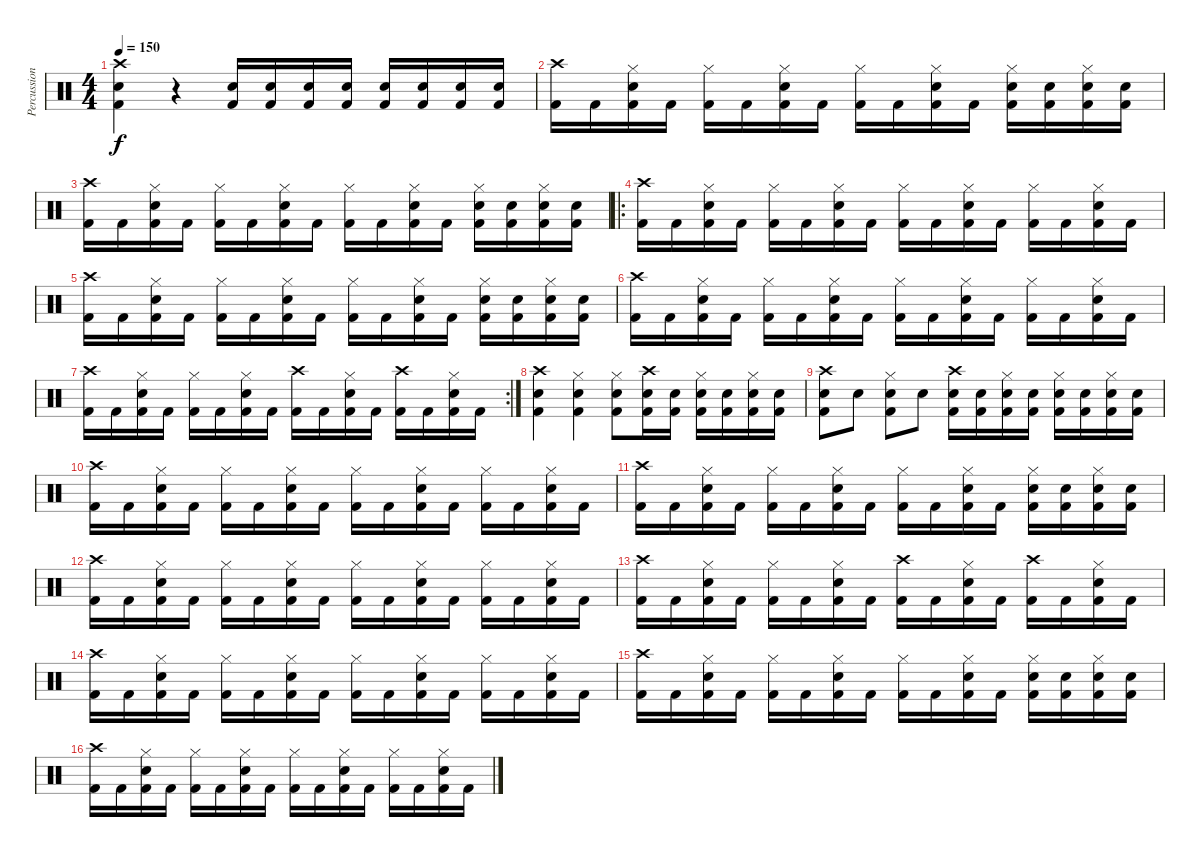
\track ("Percussion" "Percussion") {instrument percussion}
\staff {score}
\articulation defaults
\ts (4 4)
\tempo 150
\clef neutral
\ks c
("Crash high (hit)" "Snare (hit) 2" "Kick (hit) 2").4{dy f} r.4 ("Snare (hit) 2" "Kick (hit) 2").16 ("Snare (hit) 2" "Kick (hit) 2").16 ("Snare (hit) 2" "Kick (hit) 2").16 ("Snare (hit) 2" "Kick (hit) 2").16 ("Snare (hit) 2" "Kick (hit) 2").16 ("Snare (hit) 2" "Kick (hit) 2").16 ("Snare (hit) 2" "Kick (hit) 2").16 ("Snare (hit) 2" "Kick (hit) 2").16 |
("Crash high (hit)" "Kick (hit) 2").16 "Kick (hit) 2".16 ("Hi-Hat (closed)" "Snare (hit) 2" "Kick (hit) 2").16 "Kick (hit) 2".16 ("Hi-Hat (closed)" "Kick (hit) 2").16 "Kick (hit) 2".16 ("Hi-Hat (closed)" "Snare (hit) 2" "Kick (hit) 2").16 "Kick (hit) 2".16 ("Hi-Hat (closed)" "Kick (hit) 2").16 "Kick (hit) 2".16 ("Hi-Hat (closed)" "Snare (hit) 2" "Kick (hit) 2").16 "Kick (hit) 2".16 ("Hi-Hat (closed)" "Snare (hit) 2" "Kick (hit) 2").16 ("Snare (hit) 2" "Kick (hit) 2").16 ("Hi-Hat (closed)" "Snare (hit) 2" "Kick (hit) 2").16 ("Snare (hit) 2" "Kick (hit) 2").16 |
("Crash high (hit)" "Kick (hit) 2").16 "Kick (hit) 2".16 ("Hi-Hat (closed)" "Snare (hit) 2" "Kick (hit) 2").16 "Kick (hit) 2".16 ("Hi-Hat (closed)" "Kick (hit) 2").16 "Kick (hit) 2".16 ("Hi-Hat (closed)" "Snare (hit) 2" "Kick (hit) 2").16 "Kick (hit) 2".16 ("Hi-Hat (closed)" "Kick (hit) 2").16 "Kick (hit) 2".16 ("Hi-Hat (closed)" "Snare (hit) 2" "Kick (hit) 2").16 "Kick (hit) 2".16 ("Hi-Hat (closed)" "Snare (hit) 2" "Kick (hit) 2").16 ("Snare (hit) 2" "Kick (hit) 2").16 ("Hi-Hat (closed)" "Snare (hit) 2" "Kick (hit) 2").16 ("Snare (hit) 2" "Kick (hit) 2").16 |
\ro
("Crash high (hit)" "Kick (hit) 2").16 "Kick (hit) 2".16 ("Hi-Hat (closed)" "Snare (hit) 2" "Kick (hit) 2").16 "Kick (hit) 2".16 ("Hi-Hat (closed)" "Kick (hit) 2").16 "Kick (hit) 2".16 ("Hi-Hat (closed)" "Snare (hit) 2" "Kick (hit) 2").16 "Kick (hit) 2".16 ("Hi-Hat (closed)" "Kick (hit) 2").16 "Kick (hit) 2".16 ("Hi-Hat (closed)" "Snare (hit) 2" "Kick (hit) 2").16 "Kick (hit) 2".16 ("Hi-Hat (closed)" "Kick (hit) 2").16 "Kick (hit) 2".16 ("Hi-Hat (closed)" "Snare (hit) 2" "Kick (hit) 2").16 "Kick (hit) 2".16 |
("Crash high (hit)" "Kick (hit) 2").16 "Kick (hit) 2".16 ("Hi-Hat (closed)" "Snare (hit) 2" "Kick (hit) 2").16 "Kick (hit) 2".16 ("Hi-Hat (closed)" "Kick (hit) 2").16 "Kick (hit) 2".16 ("Hi-Hat (closed)" "Snare (hit) 2" "Kick (hit) 2").16 "Kick (hit) 2".16 ("Hi-Hat (closed)" "Kick (hit) 2").16 "Kick (hit) 2".16 ("Hi-Hat (closed)" "Snare (hit) 2" "Kick (hit) 2").16 "Kick (hit) 2".16 ("Hi-Hat (closed)" "Snare (hit) 2" "Kick (hit) 2").16 ("Snare (hit) 2" "Kick (hit) 2").16 ("Hi-Hat (closed)" "Snare (hit) 2" "Kick (hit) 2").16 ("Snare (hit) 2" "Kick (hit) 2").16 |
("Crash high (hit)" "Kick (hit) 2").16 "Kick (hit) 2".16 ("Hi-Hat (closed)" "Snare (hit) 2" "Kick (hit) 2").16 "Kick (hit) 2".16 ("Hi-Hat (closed)" "Kick (hit) 2").16 "Kick (hit) 2".16 ("Hi-Hat (closed)" "Snare (hit) 2" "Kick (hit) 2").16 "Kick (hit) 2".16 ("Hi-Hat (closed)" "Kick (hit) 2").16 "Kick (hit) 2".16 ("Hi-Hat (closed)" "Snare (hit) 2" "Kick (hit) 2").16 "Kick (hit) 2".16 ("Hi-Hat (closed)" "Kick (hit) 2").16 "Kick (hit) 2".16 ("Hi-Hat (closed)" "Snare (hit) 2" "Kick (hit) 2").16 "Kick (hit) 2".16 |
\rc 2
("Crash high (hit)" "Kick (hit) 2").16 "Kick (hit) 2".16 ("Hi-Hat (closed)" "Snare (hit) 2" "Kick (hit) 2").16 "Kick (hit) 2".16 ("Hi-Hat (closed)" "Kick (hit) 2").16 "Kick (hit) 2".16 ("Hi-Hat (closed)" "Snare (hit) 2" "Kick (hit) 2").16 "Kick (hit) 2".16 ("Crash high (hit)" "Kick (hit) 2").16 "Kick (hit) 2".16 ("Hi-Hat (closed)" "Snare (hit) 2" "Kick (hit) 2").16 "Kick (hit) 2".16 ("Crash high (hit)" "Kick (hit) 2").16 "Kick (hit) 2".16 ("Hi-Hat (closed)" "Snare (hit) 2" "Kick (hit) 2").16 "Kick (hit) 2".16 |
("Crash high (hit)" "Snare (hit) 2" "Kick (hit) 2").4 ("Hi-Hat (closed)" "Snare (hit) 2" "Kick (hit) 2").4 ("Hi-Hat (closed)" "Snare (hit) 2" "Kick (hit) 2").8 ("Crash high (hit)" "Snare (hit) 2" "Kick (hit) 2").16 ("Snare (hit) 2" "Kick (hit) 2").16 ("Hi-Hat (closed)" "Snare (hit) 2" "Kick (hit) 2").16 ("Snare (hit) 2" "Kick (hit) 2").16 ("Hi-Hat (closed)" "Snare (hit) 2" "Kick (hit) 2").16 ("Snare (hit) 2" "Kick (hit) 2").16 |
("Crash high (hit)" "Snare (hit) 2" "Kick (hit) 2").8 "Snare (hit) 2".8 ("Hi-Hat (closed)" "Snare (hit) 2" "Kick (hit) 2").8 "Snare (hit) 2".8 ("Crash high (hit)" "Snare (hit) 2" "Kick (hit) 2").16 ("Snare (hit) 2" "Kick (hit) 2").16 ("Hi-Hat (closed)" "Snare (hit) 2" "Kick (hit) 2").16 ("Snare (hit) 2" "Kick (hit) 2").16 ("Hi-Hat (closed)" "Snare (hit) 2" "Kick (hit) 2").16 ("Snare (hit) 2" "Kick (hit) 2").16 ("Hi-Hat (closed)" "Snare (hit) 2" "Kick (hit) 2").16 ("Snare (hit) 2" "Kick (hit) 2").16 |
("Crash high (hit)" "Kick (hit) 2").16 "Kick (hit) 2".16 ("Hi-Hat (closed)" "Snare (hit) 2" "Kick (hit) 2").16 "Kick (hit) 2".16 ("Hi-Hat (closed)" "Kick (hit) 2").16 "Kick (hit) 2".16 ("Hi-Hat (closed)" "Snare (hit) 2" "Kick (hit) 2").16 "Kick (hit) 2".16 ("Hi-Hat (closed)" "Kick (hit) 2").16 "Kick (hit) 2".16 ("Hi-Hat (closed)" "Snare (hit) 2" "Kick (hit) 2").16 "Kick (hit) 2".16 ("Hi-Hat (closed)" "Kick (hit) 2").16 "Kick (hit) 2".16 ("Hi-Hat (closed)" "Snare (hit) 2" "Kick (hit) 2").16 "Kick (hit) 2".16 |
("Crash high (hit)" "Kick (hit) 2").16 "Kick (hit) 2".16 ("Hi-Hat (closed)" "Snare (hit) 2" "Kick (hit) 2").16 "Kick (hit) 2".16 ("Hi-Hat (closed)" "Kick (hit) 2").16 "Kick (hit) 2".16 ("Hi-Hat (closed)" "Snare (hit) 2" "Kick (hit) 2").16 "Kick (hit) 2".16 ("Hi-Hat (closed)" "Kick (hit) 2").16 "Kick (hit) 2".16 ("Hi-Hat (closed)" "Snare (hit) 2" "Kick (hit) 2").16 "Kick (hit) 2".16 ("Hi-Hat (closed)" "Snare (hit) 2" "Kick (hit) 2").16 ("Snare (hit) 2" "Kick (hit) 2").16 ("Hi-Hat (closed)" "Snare (hit) 2" "Kick (hit) 2").16 ("Snare (hit) 2" "Kick (hit) 2").16 |
("Crash high (hit)" "Kick (hit) 2").16 "Kick (hit) 2".16 ("Hi-Hat (closed)" "Snare (hit) 2" "Kick (hit) 2").16 "Kick (hit) 2".16 ("Hi-Hat (closed)" "Kick (hit) 2").16 "Kick (hit) 2".16 ("Hi-Hat (closed)" "Snare (hit) 2" "Kick (hit) 2").16 "Kick (hit) 2".16 ("Hi-Hat (closed)" "Kick (hit) 2").16 "Kick (hit) 2".16 ("Hi-Hat (closed)" "Snare (hit) 2" "Kick (hit) 2").16 "Kick (hit) 2".16 ("Hi-Hat (closed)" "Kick (hit) 2").16 "Kick (hit) 2".16 ("Hi-Hat (closed)" "Snare (hit) 2" "Kick (hit) 2").16 "Kick (hit) 2".16 |
("Crash high (hit)" "Kick (hit) 2").16 "Kick (hit) 2".16 ("Hi-Hat (closed)" "Snare (hit) 2" "Kick (hit) 2").16 "Kick (hit) 2".16 ("Hi-Hat (closed)" "Kick (hit) 2").16 "Kick (hit) 2".16 ("Hi-Hat (closed)" "Snare (hit) 2" "Kick (hit) 2").16 "Kick (hit) 2".16 ("Crash high (hit)" "Kick (hit) 2").16 "Kick (hit) 2".16 ("Hi-Hat (closed)" "Snare (hit) 2" "Kick (hit) 2").16 "Kick (hit) 2".16 ("Crash high (hit)" "Kick (hit) 2").16 "Kick (hit) 2".16 ("Hi-Hat (closed)" "Snare (hit) 2" "Kick (hit) 2").16 "Kick (hit) 2".16 |
("Crash high (hit)" "Kick (hit) 2").16 "Kick (hit) 2".16 ("Hi-Hat (closed)" "Snare (hit) 2" "Kick (hit) 2").16 "Kick (hit) 2".16 ("Hi-Hat (closed)" "Kick (hit) 2").16 "Kick (hit) 2".16 ("Hi-Hat (closed)" "Snare (hit) 2" "Kick (hit) 2").16 "Kick (hit) 2".16 ("Hi-Hat (closed)" "Kick (hit) 2").16 "Kick (hit) 2".16 ("Hi-Hat (closed)" "Snare (hit) 2" "Kick (hit) 2").16 "Kick (hit) 2".16 ("Hi-Hat (closed)" "Kick (hit) 2").16 "Kick (hit) 2".16 ("Hi-Hat (closed)" "Snare (hit) 2" "Kick (hit) 2").16 "Kick (hit) 2".16 |
("Crash high (hit)" "Kick (hit) 2").16 "Kick (hit) 2".16 ("Hi-Hat (closed)" "Snare (hit) 2" "Kick (hit) 2").16 "Kick (hit) 2".16 ("Hi-Hat (closed)" "Kick (hit) 2").16 "Kick (hit) 2".16 ("Hi-Hat (closed)" "Snare (hit) 2" "Kick (hit) 2").16 "Kick (hit) 2".16 ("Hi-Hat (closed)" "Kick (hit) 2").16 "Kick (hit) 2".16 ("Hi-Hat (closed)" "Snare (hit) 2" "Kick (hit) 2").16 "Kick (hit) 2".16 ("Hi-Hat (closed)" "Snare (hit) 2" "Kick (hit) 2").16 ("Snare (hit) 2" "Kick (hit) 2").16 ("Hi-Hat (closed)" "Snare (hit) 2" "Kick (hit) 2").16 ("Snare (hit) 2" "Kick (hit) 2").16 |
("Crash high (hit)" "Kick (hit) 2").16 "Kick (hit) 2".16 ("Hi-Hat (closed)" "Snare (hit) 2" "Kick (hit) 2").16 "Kick (hit) 2".16 ("Hi-Hat (closed)" "Kick (hit) 2").16 "Kick (hit) 2".16 ("Hi-Hat (closed)" "Snare (hit) 2" "Kick (hit) 2").16 "Kick (hit) 2".16 ("Hi-Hat (closed)" "Kick (hit) 2").16 "Kick (hit) 2".16 ("Hi-Hat (closed)" "Snare (hit) 2" "Kick (hit) 2").16 "Kick (hit) 2".16 ("Hi-Hat (closed)" "Kick (hit) 2").16 "Kick (hit) 2".16 ("Hi-Hat (closed)" "Snare (hit) 2" "Kick (hit) 2").16 "Kick (hit) 2".16
